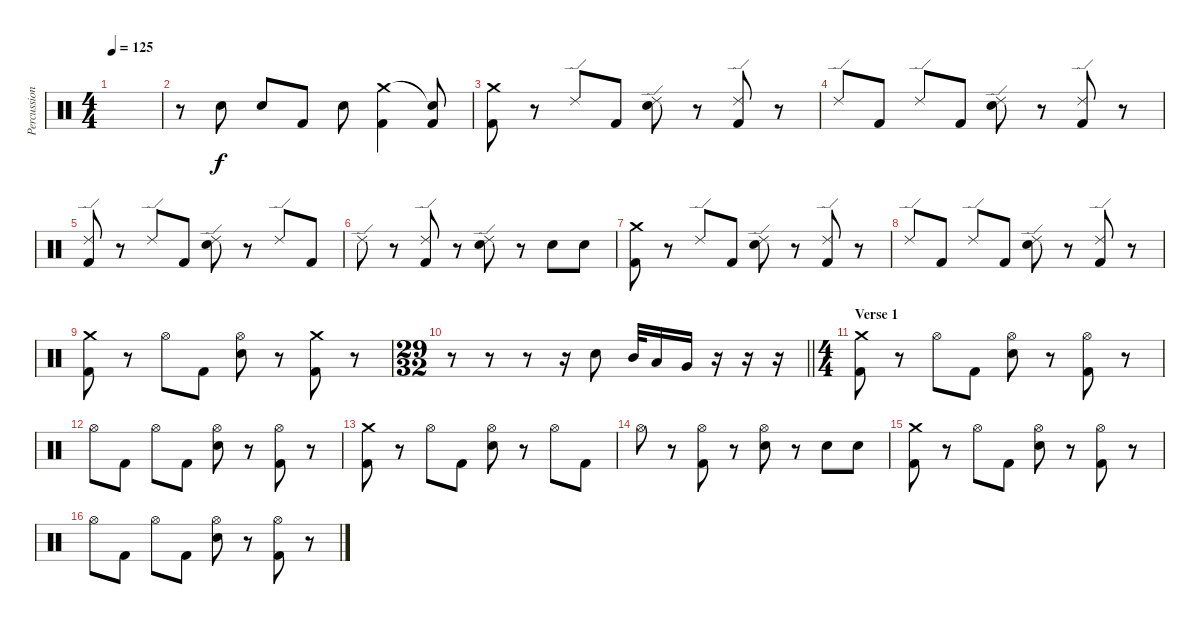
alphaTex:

\track ("Percussion" "Percussion") {instrument percussion}
\staff {score}
\articulation defaults
\ts (4 4)
\tempo 125
\clef neutral
\ks c
|
r.8 "Electric Snare (hit)".8 "Electric Snare (hit)".8 "Kick (hit) 2".8 "Electric Snare (hit)".8 ("Crash medium (hit)" "Kick (hit) 2").4 ("Snare (hit)"{t} "Kick (hit) 2").8 |
("Crash medium (hit)" "Kick (hit) 2").8 r.8 "Ride (edge) 2".8 "Kick (hit) 2".8 ("Ride (edge) 2" "Electric Snare (hit)").8 r.8 ("Ride (edge) 2" "Kick (hit) 2").8 r.8 |
"Ride (edge) 2".8 "Kick (hit) 2".8 "Ride (edge) 2".8 "Kick (hit) 2".8 ("Ride (edge) 2" "Electric Snare (hit)").8 r.8 ("Ride (edge) 2" "Kick (hit) 2").8 r.8 |
("Ride (edge) 2" "Kick (hit) 2").8 r.8 "Ride (edge) 2".8 "Kick (hit) 2".8 ("Ride (edge) 2" "Electric Snare (hit)").8 r.8 "Ride (edge) 2".8 "Kick (hit) 2".8 |
"Ride (edge) 2".8 r.8 ("Ride (edge) 2" "Kick (hit) 2").8 r.8 ("Ride (edge) 2" "Electric Snare (hit)").8 r.8 "Electric Snare (hit)".8 "Electric Snare (hit)".8 |
("Crash medium (hit)" "Kick (hit) 2").8 r.8 "Ride (edge) 2".8 "Kick (hit) 2".8 ("Ride (edge) 2" "Electric Snare (hit)").8 r.8 ("Ride (edge) 2" "Kick (hit) 2").8 r.8 |
"Ride (edge) 2".8 "Kick (hit) 2".8 "Ride (edge) 2".8 "Kick (hit) 2".8 ("Ride (edge) 2" "Electric Snare (hit)").8 r.8 ("Ride (edge) 2" "Kick (hit) 2").8 r.8 |
("Crash medium (hit)" "Kick (hit) 2").8 r.8 "Hi-Hat (open)".8 "Kick (hit) 2".8 ("Hi-Hat (open)" "Electric Snare (hit)").8 r.8 ("Crash medium (hit)" "Kick (hit) 2").8 r.8 |
\ts (29 32)
\barLineRight lightlight
r.8 r.8 r.8 r.16 "Electric Snare (hit)".8 "Mid Tom (hit)".32 "Low Tom (hit)".16 "Very Low Tom (hit)".16 r.16 r.16 r.16 |
\ts (4 4)
\section ("" "Verse 1")
("Crash medium (hit)" "Kick (hit) 2").8 r.8 "Hi-Hat (open)".8 "Kick (hit) 2".8 ("Hi-Hat (open)" "Electric Snare (hit)").8 r.8 ("Hi-Hat (open)" "Kick (hit) 2").8 r.8 |
"Hi-Hat (open)".8 "Kick (hit) 2".8 "Hi-Hat (open)".8 "Kick (hit) 2".8 ("Hi-Hat (open)" "Electric Snare (hit)").8 r.8 ("Hi-Hat (open)" "Kick (hit) 2").8 r.8 |
("Crash medium (hit)" "Kick (hit) 2").8 r.8 "Hi-Hat (open)".8 "Kick (hit) 2".8 ("Hi-Hat (open)" "Electric Snare (hit)").8 r.8 "Hi-Hat (open)".8 "Kick (hit) 2".8 |
"Hi-Hat (open)".8 r.8 ("Hi-Hat (open)" "Kick (hit) 2").8 r.8 ("Hi-Hat (open)" "Electric Snare (hit)").8 r.8 "Electric Snare (hit)".8 "Electric Snare (hit)".8 |
("Crash medium (hit)" "Kick (hit) 2").8 r.8 "Hi-Hat (open)".8 "Kick (hit) 2".8 ("Hi-Hat (open)" "Electric Snare (hit)").8 r.8 ("Hi-Hat (open)" "Kick (hit) 2").8 r.8 |
"Hi-Hat (open)".8 "Kick (hit) 2".8 "Hi-Hat (open)".8 "Kick (hit) 2".8 ("Hi-Hat (open)" "Electric Snare (hit)").8 r.8 ("Hi-Hat (open)" "Kick (hit) 2").8 r.8
